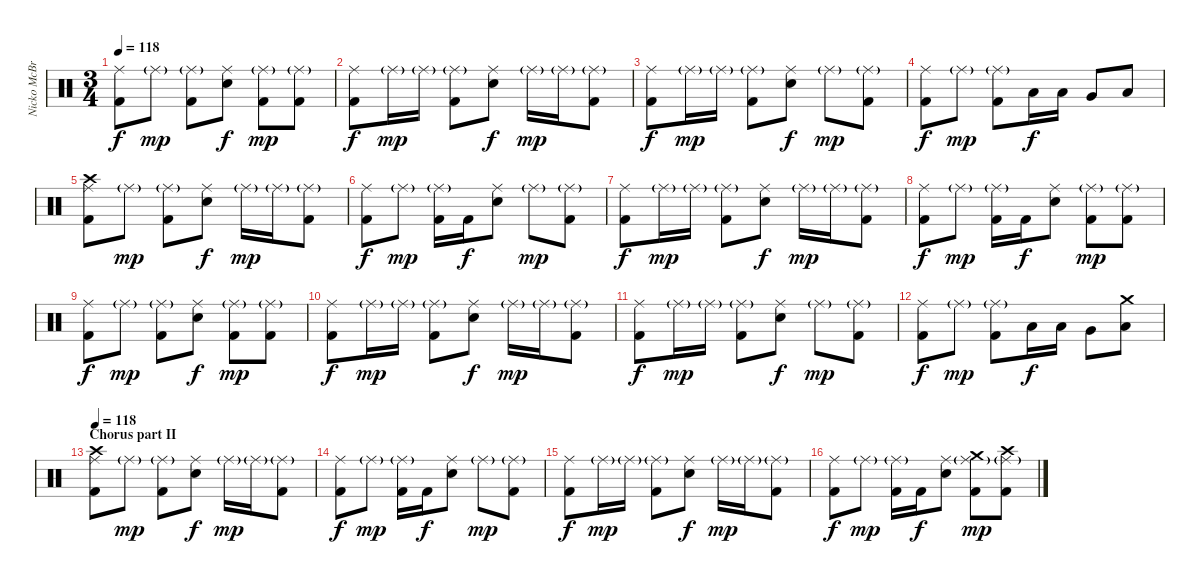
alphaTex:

\track ("Nicko McBrain" "Nicko McBr") {instrument percussion}
\staff {score}
\articulation defaults
\ts (3 4)
\tempo 118
\clef neutral
\ks c
("Ride (middle)" "Kick (hit) 2").8{dy f} "Ride (middle)"{g}.8{dy mp} ("Ride (middle)"{g} "Kick (hit) 2").8 ("Ride (middle)" "Electric Snare (hit)").8{dy f} ("Ride (middle)"{g} "Kick (hit) 2").8{dy mp} ("Ride (middle)"{g} "Kick (hit) 2").8 |
("Ride (middle)" "Kick (hit) 2").8{dy f} "Ride (middle)"{g}.16{dy mp} "Ride (middle)"{g}.16 ("Ride (middle)"{g} "Kick (hit) 2").8 ("Ride (middle)" "Electric Snare (hit)").8{dy f} "Ride (middle)"{g}.16{dy mp} "Ride (middle)"{g}.16 ("Ride (middle)"{g} "Kick (hit) 2").8 |
("Ride (middle)" "Kick (hit) 2").8{dy f} "Ride (middle)"{g}.16{dy mp} "Ride (middle)"{g}.16 ("Ride (middle)"{g} "Kick (hit) 2").8 ("Ride (middle)" "Electric Snare (hit)").8{dy f} "Ride (middle)"{g}.8{dy mp} ("Ride (middle)"{g} "Kick (hit) 2").8 |
("Ride (middle)" "Kick (hit) 2").8{dy f} "Ride (middle)"{g}.8{dy mp} ("Ride (middle)"{g} "Kick (hit) 2").8 "Low Tom (hit)".16{dy f} "Low Tom (hit)".16 "Very Low Tom (hit)".8 "Low Floor Tom (hit)".8 |
("Ride (middle)" "Crash high (hit)" "Kick (hit) 2").8 "Ride (middle)"{g}.8{dy mp} ("Ride (middle)"{g} "Kick (hit) 2").8 ("Ride (middle)" "Electric Snare (hit)").8{dy f} "Ride (middle)"{g}.16{dy mp} "Ride (middle)"{g}.16 ("Ride (middle)"{g} "Kick (hit) 2").8 |
("Ride (middle)" "Kick (hit) 2").8{dy f} "Ride (middle)"{g}.8{dy mp} ("Ride (middle)"{g} "Kick (hit) 2").16 "Kick (hit) 2".16{dy f} ("Ride (middle)" "Electric Snare (hit)").8 "Ride (middle)"{g}.8{dy mp} ("Ride (middle)"{g} "Kick (hit) 2").8 |
("Ride (middle)" "Kick (hit) 2").8{dy f} "Ride (middle)"{g}.16{dy mp} "Ride (middle)"{g}.16 ("Ride (middle)"{g} "Kick (hit) 2").8 ("Ride (middle)" "Electric Snare (hit)").8{dy f} "Ride (middle)"{g}.16{dy mp} "Ride (middle)"{g}.16 ("Ride (middle)"{g} "Kick (hit) 2").8 |
("Ride (middle)" "Kick (hit) 2").8{dy f} "Ride (middle)"{g}.8{dy mp} ("Ride (middle)"{g} "Kick (hit) 2").16 "Kick (hit) 2".16{dy f} ("Ride (middle)" "Electric Snare (hit)").8 ("Ride (middle)"{g} "Kick (hit) 2").8{dy mp} ("Ride (middle)"{g} "Kick (hit) 2").8 |
("Ride (middle)" "Kick (hit) 2").8{dy f} "Ride (middle)"{g}.8{dy mp} ("Ride (middle)"{g} "Kick (hit) 2").8 ("Ride (middle)" "Electric Snare (hit)").8{dy f} ("Ride (middle)"{g} "Kick (hit) 2").8{dy mp} ("Ride (middle)"{g} "Kick (hit) 2").8 |
("Ride (middle)" "Kick (hit) 2").8{dy f} "Ride (middle)"{g}.16{dy mp} "Ride (middle)"{g}.16 ("Ride (middle)"{g} "Kick (hit) 2").8 ("Ride (middle)" "Electric Snare (hit)").8{dy f} "Ride (middle)"{g}.16{dy mp} "Ride (middle)"{g}.16 ("Ride (middle)"{g} "Kick (hit) 2").8 |
("Ride (middle)" "Kick (hit) 2").8{dy f} "Ride (middle)"{g}.16{dy mp} "Ride (middle)"{g}.16 ("Ride (middle)"{g} "Kick (hit) 2").8 ("Ride (middle)" "Electric Snare (hit)").8{dy f} "Ride (middle)"{g}.8{dy mp} ("Ride (middle)"{g} "Kick (hit) 2").8 |
("Ride (middle)" "Kick (hit) 2").8{dy f} "Ride (middle)"{g}.8{dy mp} ("Ride (middle)"{g} "Kick (hit) 2").8 "Low Tom (hit)".16{dy f} "Low Tom (hit)".16 "Very Low Tom (hit)".8 ("Low Floor Tom (hit)" "Crash medium (hit)").8 |
\section ("" "Chorus part II")
\tempo 118
("Ride (middle)" "Crash high (hit)" "Kick (hit) 2").8 "Ride (middle)"{g}.8{dy mp} ("Ride (middle)"{g} "Kick (hit) 2").8 ("Ride (middle)" "Electric Snare (hit)").8{dy f} "Ride (middle)"{g}.16{dy mp} "Ride (middle)"{g}.16 ("Ride (middle)"{g} "Kick (hit) 2").8 |
("Ride (middle)" "Kick (hit) 2").8{dy f} "Ride (middle)"{g}.8{dy mp} ("Ride (middle)"{g} "Kick (hit) 2").16 "Kick (hit) 2".16{dy f} ("Ride (middle)" "Electric Snare (hit)").8 "Ride (middle)"{g}.8{dy mp} ("Ride (middle)"{g} "Kick (hit) 2").8 |
("Ride (middle)" "Kick (hit) 2").8{dy f} "Ride (middle)"{g}.16{dy mp} "Ride (middle)"{g}.16 ("Ride (middle)"{g} "Kick (hit) 2").8 ("Ride (middle)" "Electric Snare (hit)").8{dy f} "Ride (middle)"{g}.16{dy mp} "Ride (middle)"{g}.16 ("Ride (middle)"{g} "Kick (hit) 2").8 |
("Ride (middle)" "Kick (hit) 2").8{dy f} "Ride (middle)"{g}.8{dy mp} ("Ride (middle)"{g} "Kick (hit) 2").16 "Kick (hit) 2".16{dy f} ("Ride (middle)" "Electric Snare (hit)").8 ("Ride (middle)"{g} "Crash medium (hit)" "Kick (hit) 2").8{dy mp} ("Ride (middle)"{g} "Crash high (hit)" "Kick (hit) 2").8
